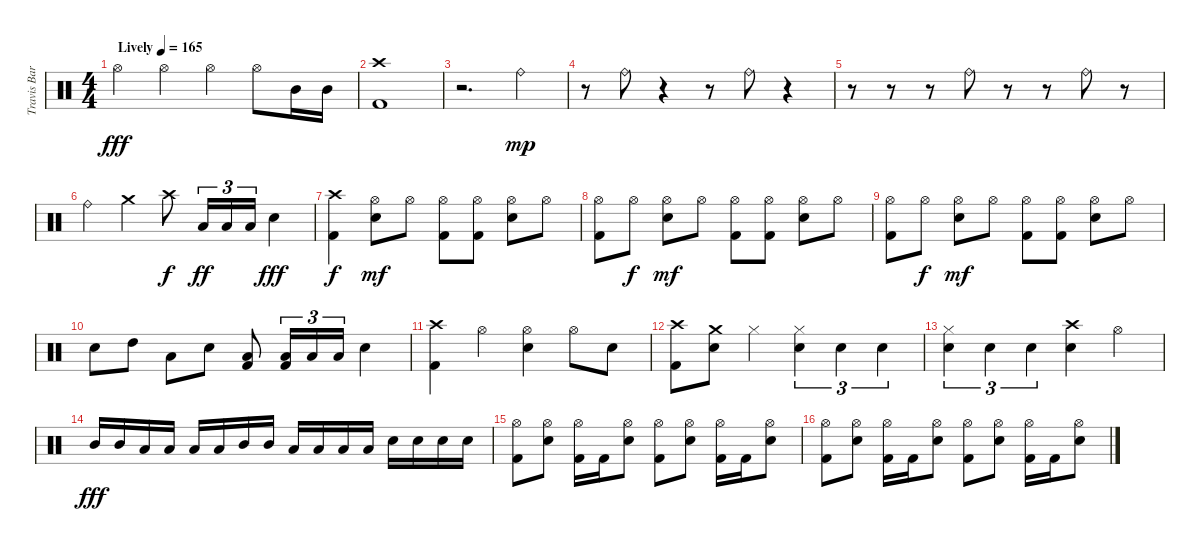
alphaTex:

\track ("Travis Barker - Drums" "Travis Bar") {instrument percussion}
\staff {score}
\articulation defaults
\ts (4 4)
\tempo (165 "Lively")
\clef neutral
\ks c "Hi-Hat (open)".4{dy fff} "Hi-Hat (open)".4 "Hi-Hat (open)".4 "Hi-Hat (open)".8 "Mid Tom (hit)".16 "Mid Tom (hit)".16
|
("Crash high (hit)" "Kick (hit) 2").1 |
r.2{d} "Ride (bell)".4{dy mp} |
r.8 "Ride (bell)".8 r.4 r.8 "Ride (bell)".8 r.4 |
r.8 r.8 r.8 "Ride (bell)".8 r.8 r.8 "Ride (bell)".8 r.8 |
"Ride (bell)".4 "Crash medium (hit)".4 "Crash high (hit)".8{dy f} "Low Tom (hit)".16{tu (3 2) dy ff} "Low Tom (hit)".16{tu (3 2)} "Low Tom (hit)".16{tu (3 2)} "Snare (hit) 2".4{dy fff} |
("Crash high (hit)" "Kick (hit) 2").4{dy f} ("Hi-Hat (open)" "Snare (hit) 2").8{dy mf} "Hi-Hat (open)".8 ("Hi-Hat (open)" "Kick (hit) 2").8 ("Hi-Hat (open)" "Kick (hit) 2").8 ("Hi-Hat (open)" "Snare (hit) 2").8 "Hi-Hat (open)".8 |
("Hi-Hat (open)" "Kick (hit) 2").8 "Hi-Hat (open)".8{dy f} ("Hi-Hat (open)" "Snare (hit) 2").8{dy mf} "Hi-Hat (open)".8 ("Hi-Hat (open)" "Kick (hit) 2").8 ("Hi-Hat (open)" "Kick (hit) 2").8 ("Hi-Hat (open)" "Snare (hit) 2").8 "Hi-Hat (open)".8 |
("Hi-Hat (open)" "Kick (hit) 2").8 "Hi-Hat (open)".8{dy f} ("Hi-Hat (open)" "Snare (hit) 2").8{dy mf} "Hi-Hat (open)".8 ("Hi-Hat (open)" "Kick (hit) 2").8 ("Hi-Hat (open)" "Kick (hit) 2").8 ("Hi-Hat (open)" "Snare (hit) 2").8 "Hi-Hat (open)".8 |
"Snare (hit) 2".8 "High Tom (hit)".8 "Low Tom (hit)".8 "Snare (hit) 2".8 ("Low Tom (hit)" "Kick (hit) 2").8 ("Low Tom (hit)" "Kick (hit) 2").16{tu (3 2)} "Low Tom (hit)".16{tu (3 2)} "Low Tom (hit)".16{tu (3 2)} "Snare (hit) 2".4 |
("Crash high (hit)" "Kick (hit) 2").4 "Hi-Hat (open)".4 ("Hi-Hat (open)" "Snare (hit) 2").4 "Hi-Hat (open)".8 "Snare (hit) 2".8 |
("Crash high (hit)" "Kick (hit) 2").8 ("Crash medium (hit)" "Snare (hit) 2").8 "Hi-Hat (closed)".4 ("Hi-Hat (closed)" "Snare (hit) 2").4{tu (3 2)} "Snare (hit) 2".4{tu (3 2)} "Snare (hit) 2".4{tu (3 2)} |
("Hi-Hat (closed)" "Snare (hit) 2").4{tu (3 2)} "Snare (hit) 2".4{tu (3 2)} "Snare (hit) 2".4{tu (3 2)} ("Crash high (hit)" "Snare (hit) 2").4 "Hi-Hat (open)".4 |
"Mid Tom (hit)".16{dy fff} "Mid Tom (hit)".16 "Low Tom (hit)".16 "Low Tom (hit)".16 "Low Tom (hit)".16 "Low Tom (hit)".16 "Mid Tom (hit)".16 "Mid Tom (hit)".16 "Low Tom (hit)".16 "Low Tom (hit)".16 "Low Tom (hit)".16 "Low Tom (hit)".16 "Snare (hit) 2".16 "Snare (hit) 2".16 "Snare (hit) 2".16 "Snare (hit) 2".16 |
("Hi-Hat (open)" "Kick (hit) 2").8 ("Hi-Hat (open)" "Snare (hit) 2").8 ("Hi-Hat (open)" "Kick (hit) 2").16 "Kick (hit) 2".16 ("Hi-Hat (open)" "Snare (hit) 2").8 ("Hi-Hat (open)" "Kick (hit) 2").8 ("Hi-Hat (open)" "Snare (hit) 2").8 ("Hi-Hat (open)" "Kick (hit) 2").16 "Kick (hit) 2".16 ("Hi-Hat (open)" "Snare (hit) 2").8 |
("Hi-Hat (open)" "Kick (hit) 2").8 ("Hi-Hat (open)" "Snare (hit) 2").8 ("Hi-Hat (open)" "Kick (hit) 2").16 "Kick (hit) 2".16 ("Hi-Hat (open)" "Snare (hit) 2").8 ("Hi-Hat (open)" "Kick (hit) 2").8 ("Hi-Hat (open)" "Snare (hit) 2").8 ("Hi-Hat (open)" "Kick (hit) 2").16 "Kick (hit) 2".16 ("Hi-Hat (open)" "Snare (hit) 2").8
